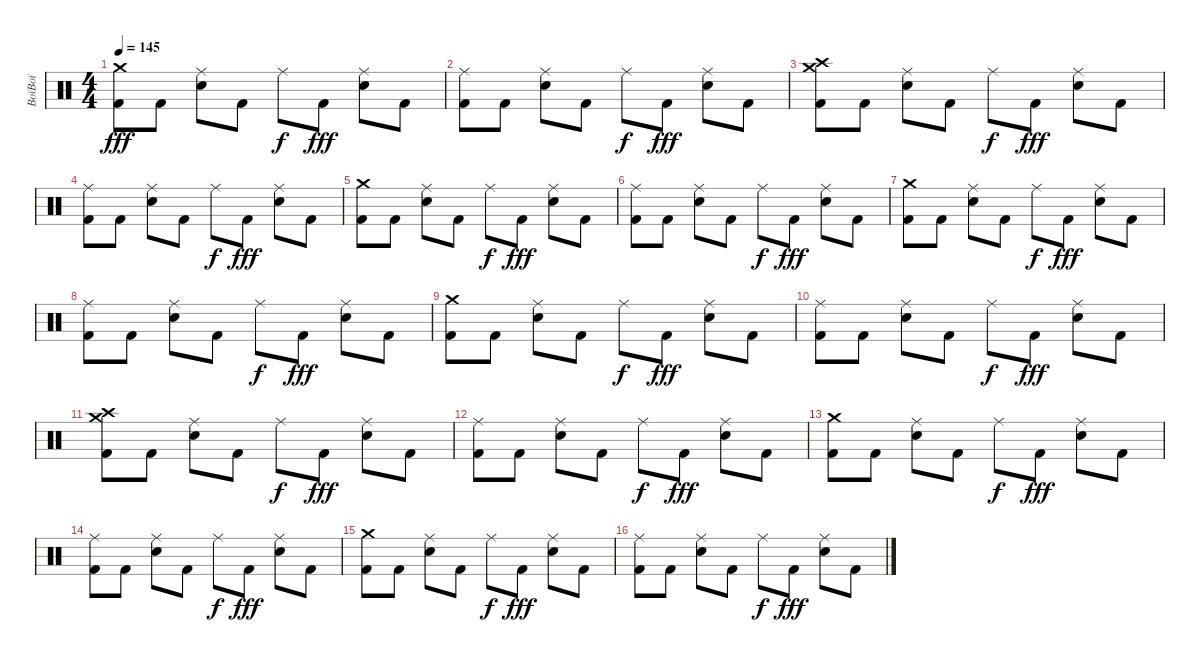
\track ("BoïBoï" "BoïBoï") {instrument percussion}
\staff {score}
\articulation defaults
\ts (4 4)
\tempo 145
\clef neutral
\ks c
("Crash medium (hit)" "Kick (hit) 2").8{dy fff} "Kick (hit) 2".8 ("Ride (middle)" "Electric Snare (hit)").8 "Kick (hit) 2".8 "Ride (middle)".8{dy f} "Kick (hit) 2".8{dy fff} ("Ride (middle)" "Electric Snare (hit)").8 "Kick (hit) 2".8 |
("Ride (middle)" "Kick (hit) 2").8 "Kick (hit) 2".8 ("Ride (middle)" "Electric Snare (hit)").8 "Kick (hit) 2".8 "Ride (middle)".8{dy f} "Kick (hit) 2".8{dy fff} ("Ride (middle)" "Electric Snare (hit)").8 "Kick (hit) 2".8 |
("Crash medium (hit)" "Crash high (hit)" "Kick (hit) 2").8 "Kick (hit) 2".8 ("Ride (middle)" "Electric Snare (hit)").8 "Kick (hit) 2".8 "Ride (middle)".8{dy f} "Kick (hit) 2".8{dy fff} ("Ride (middle)" "Electric Snare (hit)").8 "Kick (hit) 2".8 |
("Ride (middle)" "Kick (hit) 2").8 "Kick (hit) 2".8 ("Ride (middle)" "Electric Snare (hit)").8 "Kick (hit) 2".8 "Ride (middle)".8{dy f} "Kick (hit) 2".8{dy fff} ("Ride (middle)" "Electric Snare (hit)").8 "Kick (hit) 2".8 |
("Crash medium (hit)" "Kick (hit) 2").8 "Kick (hit) 2".8 ("Ride (middle)" "Electric Snare (hit)").8 "Kick (hit) 2".8 "Ride (middle)".8{dy f} "Kick (hit) 2".8{dy fff} ("Ride (middle)" "Electric Snare (hit)").8 "Kick (hit) 2".8 |
("Ride (middle)" "Kick (hit) 2").8 "Kick (hit) 2".8 ("Ride (middle)" "Electric Snare (hit)").8 "Kick (hit) 2".8 "Ride (middle)".8{dy f} "Kick (hit) 2".8{dy fff} ("Ride (middle)" "Electric Snare (hit)").8 "Kick (hit) 2".8 |
("Crash medium (hit)" "Kick (hit) 2").8 "Kick (hit) 2".8 ("Ride (middle)" "Electric Snare (hit)").8 "Kick (hit) 2".8 "Ride (middle)".8{dy f} "Kick (hit) 2".8{dy fff} ("Ride (middle)" "Electric Snare (hit)").8 "Kick (hit) 2".8 |
("Ride (middle)" "Kick (hit) 2").8 "Kick (hit) 2".8 ("Ride (middle)" "Electric Snare (hit)").8 "Kick (hit) 2".8 "Ride (middle)".8{dy f} "Kick (hit) 2".8{dy fff} ("Ride (middle)" "Electric Snare (hit)").8 "Kick (hit) 2".8 |
("Crash medium (hit)" "Kick (hit) 2").8 "Kick (hit) 2".8 ("Ride (middle)" "Electric Snare (hit)").8 "Kick (hit) 2".8 "Ride (middle)".8{dy f} "Kick (hit) 2".8{dy fff} ("Ride (middle)" "Electric Snare (hit)").8 "Kick (hit) 2".8 |
("Ride (middle)" "Kick (hit) 2").8 "Kick (hit) 2".8 ("Ride (middle)" "Electric Snare (hit)").8 "Kick (hit) 2".8 "Ride (middle)".8{dy f} "Kick (hit) 2".8{dy fff} ("Ride (middle)" "Electric Snare (hit)").8 "Kick (hit) 2".8 |
("Crash medium (hit)" "Crash high (hit)" "Kick (hit) 2").8 "Kick (hit) 2".8 ("Ride (middle)" "Electric Snare (hit)").8 "Kick (hit) 2".8 "Ride (middle)".8{dy f} "Kick (hit) 2".8{dy fff} ("Ride (middle)" "Electric Snare (hit)").8 "Kick (hit) 2".8 |
("Ride (middle)" "Kick (hit) 2").8 "Kick (hit) 2".8 ("Ride (middle)" "Electric Snare (hit)").8 "Kick (hit) 2".8 "Ride (middle)".8{dy f} "Kick (hit) 2".8{dy fff} ("Ride (middle)" "Electric Snare (hit)").8 "Kick (hit) 2".8 |
("Crash medium (hit)" "Kick (hit) 2").8 "Kick (hit) 2".8 ("Ride (middle)" "Electric Snare (hit)").8 "Kick (hit) 2".8 "Ride (middle)".8{dy f} "Kick (hit) 2".8{dy fff} ("Ride (middle)" "Electric Snare (hit)").8 "Kick (hit) 2".8 |
("Ride (middle)" "Kick (hit) 2").8 "Kick (hit) 2".8 ("Ride (middle)" "Electric Snare (hit)").8 "Kick (hit) 2".8 "Ride (middle)".8{dy f} "Kick (hit) 2".8{dy fff} ("Ride (middle)" "Electric Snare (hit)").8 "Kick (hit) 2".8 |
("Crash medium (hit)" "Kick (hit) 2").8 "Kick (hit) 2".8 ("Ride (middle)" "Electric Snare (hit)").8 "Kick (hit) 2".8 "Ride (middle)".8{dy f} "Kick (hit) 2".8{dy fff} ("Ride (middle)" "Electric Snare (hit)").8 "Kick (hit) 2".8 |
("Ride (middle)" "Kick (hit) 2").8 "Kick (hit) 2".8 ("Ride (middle)" "Electric Snare (hit)").8 "Kick (hit) 2".8 "Ride (middle)".8{dy f} "Kick (hit) 2".8{dy fff} ("Ride (middle)" "Electric Snare (hit)").8 "Kick (hit) 2".8
